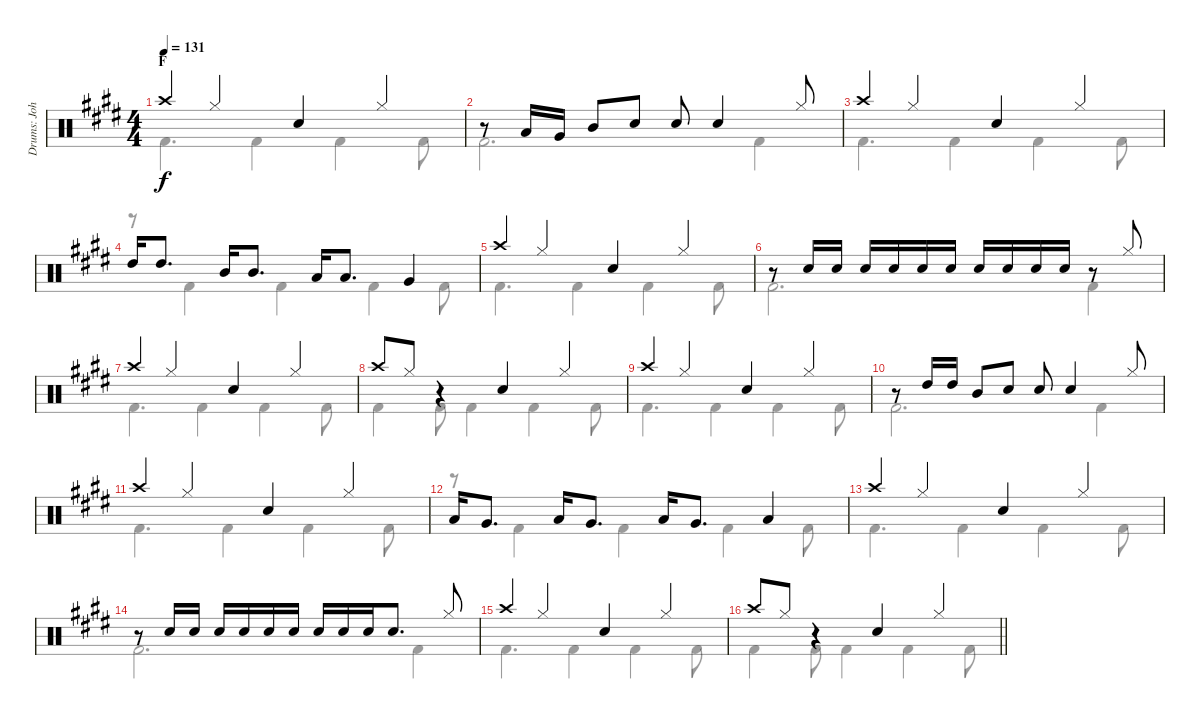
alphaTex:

\track ("Drums: John" "Drums: Joh") {instrument percussion}
\staff {score}
\articulation defaults
\voice
\ts (4 4)
\section ("" "F")
\tempo 131
\clef neutral
\ks e "Crash high (hit)".4{dy f} "Hi-Hat (closed)".4 "Electric Snare (hit)".4 "Hi-Hat (closed)".4
|
r.8 "Low Tom (hit)".16 "Very Low Tom (hit)".16 "Mid Tom (hit)".8 "Electric Snare (hit)".8 "Electric Snare (hit)".8 "Electric Snare (hit)".4 "Hi-Hat (closed)".8 |
"Crash high (hit)".4 "Hi-Hat (closed)".4 "Electric Snare (hit)".4 "Hi-Hat (closed)".4 |
"High Tom (hit)".16 "High Tom (hit)".8{d} "Mid Tom (hit)".16 "Mid Tom (hit)".8{d} "Low Tom (hit)".16 "Low Tom (hit)".8{d} "Very Low Tom (hit)".4 |
"Crash high (hit)".4 "Hi-Hat (closed)".4 "Electric Snare (hit)".4 "Hi-Hat (closed)".4 |
r.8 "Electric Snare (hit)".16 "Electric Snare (hit)".16 "Electric Snare (hit)".16 "Electric Snare (hit)".16 "Electric Snare (hit)".16 "Electric Snare (hit)".16 "Electric Snare (hit)".16 "Electric Snare (hit)".16 "Electric Snare (hit)".16 "Electric Snare (hit)".16 r.8 "Hi-Hat (closed)".8 |
"Crash high (hit)".4 "Hi-Hat (closed)".4 "Electric Snare (hit)".4 "Hi-Hat (closed)".4 |
"Crash high (hit)".8 "Hi-Hat (closed)".8 r.4 "Electric Snare (hit)".4 "Hi-Hat (closed)".4 |
"Crash high (hit)".4 "Hi-Hat (closed)".4 "Electric Snare (hit)".4 "Hi-Hat (closed)".4 |
r.8 "High Tom (hit)".16 "High Tom (hit)".16 "Mid Tom (hit)".8 "Electric Snare (hit)".8 "Electric Snare (hit)".8 "Electric Snare (hit)".4 "Hi-Hat (closed)".8 |
"Crash high (hit)".4 "Hi-Hat (closed)".4 "Electric Snare (hit)".4 "Hi-Hat (closed)".4 |
"Low Tom (hit)".16 "Very Low Tom (hit)".8{d} "Low Tom (hit)".16 "Very Low Tom (hit)".8{d} "Low Tom (hit)".16 "Very Low Tom (hit)".8{d} "Low Tom (hit)".4 |
"Crash high (hit)".4 "Hi-Hat (closed)".4 "Electric Snare (hit)".4 "Hi-Hat (closed)".4 |
r.8 "Electric Snare (hit)".16 "Electric Snare (hit)".16 "Electric Snare (hit)".16 "Electric Snare (hit)".16 "Electric Snare (hit)".16 "Electric Snare (hit)".16 "Electric Snare (hit)".16 "Electric Snare (hit)".16 "Electric Snare (hit)".16 "Electric Snare (hit)".8{d} "Hi-Hat (closed)".8 |
"Crash high (hit)".4 "Hi-Hat (closed)".4 "Electric Snare (hit)".4 "Hi-Hat (closed)".4 |
\barLineRight lightlight "Crash high (hit)".8 "Hi-Hat (closed)".8
r.4 "Electric Snare (hit)".4 "Hi-Hat (closed)".4
\voice
\clef neutral
\ottava regular
\simile none
\ks e "Kick (hit) 2".4{d dy f} "Kick (hit) 2".4 "Kick (hit) 2".4 "Kick (hit) 2".8
|
"Kick (hit) 2".2{d} "Kick (hit) 2".4 |
"Kick (hit) 2".4{d} "Kick (hit) 2".4 "Kick (hit) 2".4 "Kick (hit) 2".8 |
r.8 "Kick (hit) 2".4 "Kick (hit) 2".4 "Kick (hit) 2".4 "Kick (hit) 2".8 |
"Kick (hit) 2".4{d} "Kick (hit) 2".4 "Kick (hit) 2".4 "Kick (hit) 2".8 |
"Kick (hit) 2".2{d} "Kick (hit) 2".4 |
"Kick (hit) 2".4{d} "Kick (hit) 2".4 "Kick (hit) 2".4 "Kick (hit) 2".8 |
"Kick (hit) 2".4 "Kick (hit) 2".8 "Kick (hit) 2".4 "Kick (hit) 2".4 "Kick (hit) 2".8 |
"Kick (hit) 2".4{d} "Kick (hit) 2".4 "Kick (hit) 2".4 "Kick (hit) 2".8 |
"Kick (hit) 2".2{d} "Kick (hit) 2".4 |
"Kick (hit) 2".4{d} "Kick (hit) 2".4 "Kick (hit) 2".4 "Kick (hit) 2".8 |
r.8 "Kick (hit) 2".4 "Kick (hit) 2".4 "Kick (hit) 2".4 "Kick (hit) 2".8 |
"Kick (hit) 2".4{d} "Kick (hit) 2".4 "Kick (hit) 2".4 "Kick (hit) 2".8 |
"Kick (hit) 2".2{d} "Kick (hit) 2".4 |
"Kick (hit) 2".4{d} "Kick (hit) 2".4 "Kick (hit) 2".4 "Kick (hit) 2".8 |
\barLineRight lightlight "Kick (hit) 2".4 "Kick (hit) 2".8 "Kick (hit) 2".4 "Kick (hit) 2".4 "Kick (hit) 2".8
